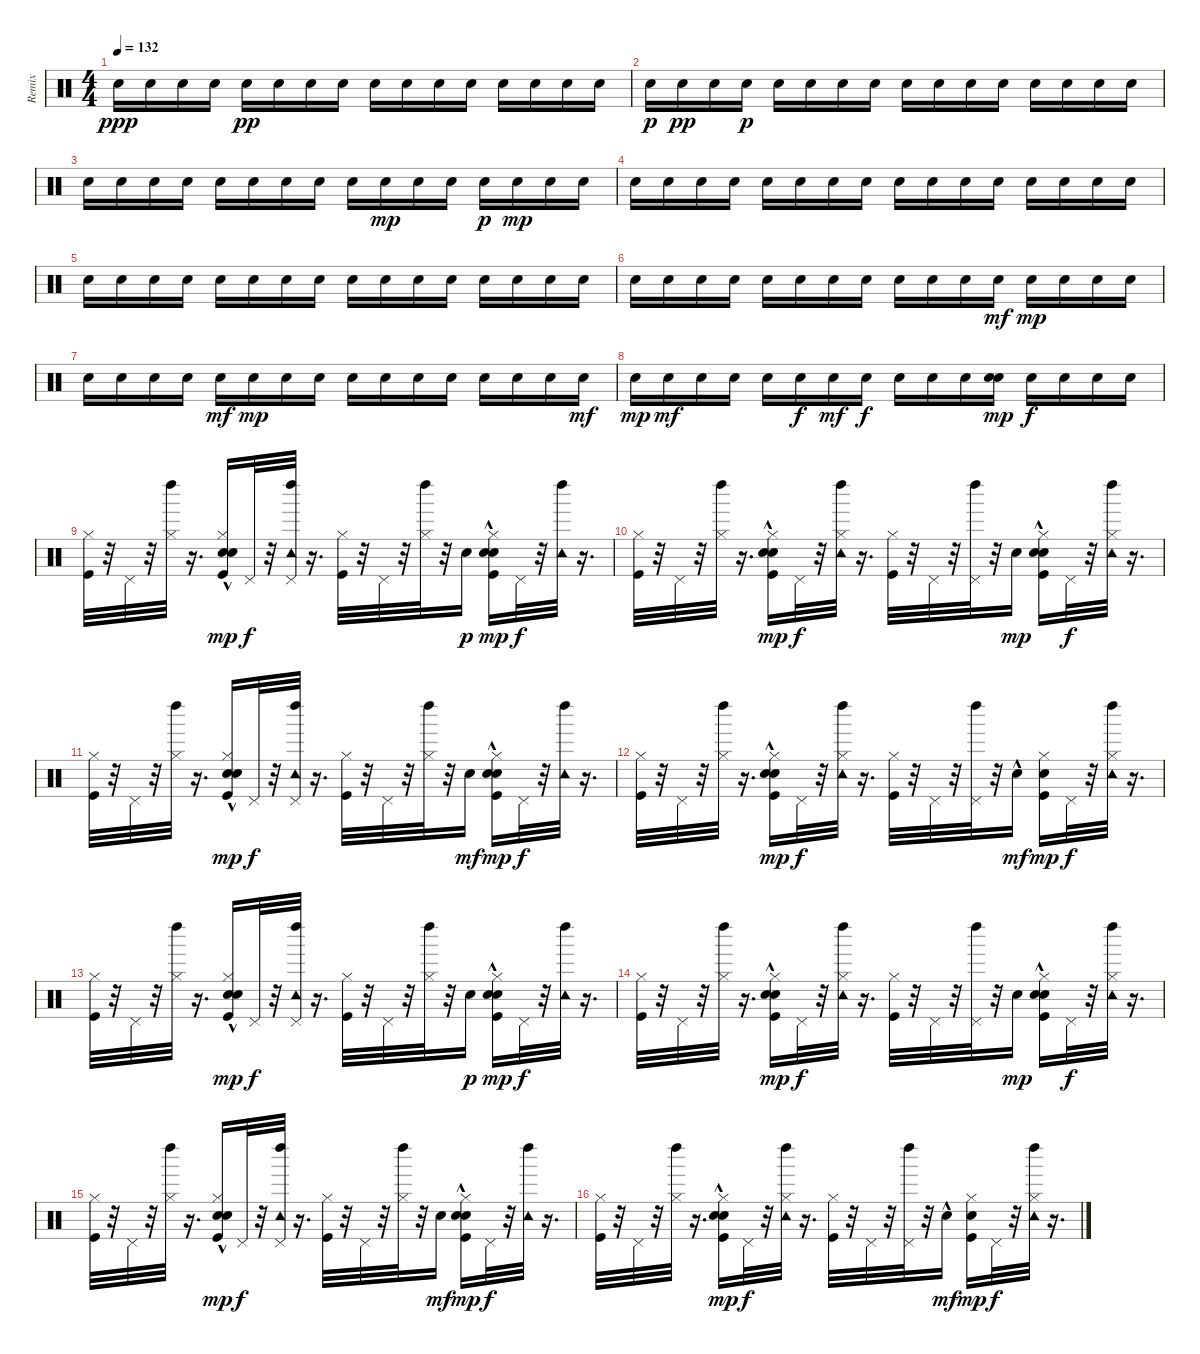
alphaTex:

\track ("Remix" "Remix") {instrument percussion}
\staff {score}
\articulation defaults
\ts (4 4)
\tempo 132
\clef neutral
\ks c "Snare (hit) 2".16{dy ppp} "Snare (hit) 2".16 "Snare (hit) 2".16 "Snare (hit) 2".16 "Snare (hit) 2".16{dy pp} "Snare (hit) 2".16 "Snare (hit) 2".16 "Snare (hit) 2".16 "Snare (hit) 2".16 "Snare (hit) 2".16 "Snare (hit) 2".16 "Snare (hit) 2".16 "Snare (hit) 2".16 "Snare (hit) 2".16 "Snare (hit) 2".16 "Snare (hit) 2".16
|
"Snare (hit) 2".16{dy p} "Snare (hit) 2".16{dy pp} "Snare (hit) 2".16 "Snare (hit) 2".16{dy p} "Snare (hit) 2".16 "Snare (hit) 2".16 "Snare (hit) 2".16 "Snare (hit) 2".16 "Snare (hit) 2".16 "Snare (hit) 2".16 "Snare (hit) 2".16 "Snare (hit) 2".16 "Snare (hit) 2".16 "Snare (hit) 2".16 "Snare (hit) 2".16 "Snare (hit) 2".16 |
"Snare (hit) 2".16 "Snare (hit) 2".16 "Snare (hit) 2".16 "Snare (hit) 2".16 "Snare (hit) 2".16 "Snare (hit) 2".16 "Snare (hit) 2".16 "Snare (hit) 2".16 "Snare (hit) 2".16 "Snare (hit) 2".16{dy mp} "Snare (hit) 2".16 "Snare (hit) 2".16 "Snare (hit) 2".16{dy p} "Snare (hit) 2".16{dy mp} "Snare (hit) 2".16 "Snare (hit) 2".16 |
"Snare (hit) 2".16 "Snare (hit) 2".16 "Snare (hit) 2".16 "Snare (hit) 2".16 "Snare (hit) 2".16 "Snare (hit) 2".16 "Snare (hit) 2".16 "Snare (hit) 2".16 "Snare (hit) 2".16 "Snare (hit) 2".16 "Snare (hit) 2".16 "Snare (hit) 2".16 "Snare (hit) 2".16 "Snare (hit) 2".16 "Snare (hit) 2".16 "Snare (hit) 2".16 |
"Snare (hit) 2".16 "Snare (hit) 2".16 "Snare (hit) 2".16 "Snare (hit) 2".16 "Snare (hit) 2".16 "Snare (hit) 2".16 "Snare (hit) 2".16 "Snare (hit) 2".16 "Snare (hit) 2".16 "Snare (hit) 2".16 "Snare (hit) 2".16 "Snare (hit) 2".16 "Snare (hit) 2".16 "Snare (hit) 2".16 "Snare (hit) 2".16 "Snare (hit) 2".16 |
"Snare (hit) 2".16 "Snare (hit) 2".16 "Snare (hit) 2".16 "Snare (hit) 2".16 "Snare (hit) 2".16 "Snare (hit) 2".16 "Snare (hit) 2".16 "Snare (hit) 2".16 "Snare (hit) 2".16 "Snare (hit) 2".16 "Snare (hit) 2".16 "Snare (hit) 2".16{dy mf} "Snare (hit) 2".16{dy mp} "Snare (hit) 2".16 "Snare (hit) 2".16 "Snare (hit) 2".16 |
"Snare (hit) 2".16 "Snare (hit) 2".16 "Snare (hit) 2".16 "Snare (hit) 2".16 "Snare (hit) 2".16{dy mf} "Snare (hit) 2".16{dy mp} "Snare (hit) 2".16 "Snare (hit) 2".16 "Snare (hit) 2".16 "Snare (hit) 2".16 "Snare (hit) 2".16 "Snare (hit) 2".16 "Snare (hit) 2".16 "Snare (hit) 2".16 "Snare (hit) 2".16 "Snare (hit) 2".16{dy mf} |
"Snare (hit) 2".16{dy mp} "Snare (hit) 2".16{dy mf} "Snare (hit) 2".16 "Snare (hit) 2".16 "Snare (hit) 2".16 "Snare (hit) 2".16{dy f} "Snare (hit) 2".16{dy mf} "Snare (hit) 2".16{dy f} "Snare (hit) 2".16 "Snare (hit) 2".16 "Snare (hit) 2".16 ("Snare (hit) 2" "Electric Snare (hit)").16{dy mp} "Snare (hit) 2".16{dy f} "Snare (hit) 2".16 "Snare (hit) 2".16 "Snare (hit) 2".16 |
("Hi-Hat (closed)" "Kick (hit)").32{volume 11} r.32 "Pedal Hi-Hat (hit)".32 r.32 ("Left Maraca (hit)" "Hi-Hat (closed)").32 r.16{d} ("Kick (hit)" "Hi-Hat (closed)" "Hand Clap (hit)" "Electric Snare (hit)"{hac}).16{dy mp} "Pedal Hi-Hat (hit)".32{dy f} r.32 ("Tambourine (hit)" "Left Maraca (hit)" "Pedal Hi-Hat (hit)").32 r.16{d} ("Hi-Hat (closed)" "Kick (hit)").32 r.32 "Pedal Hi-Hat (hit)".32 r.32 ("Hi-Hat (closed)" "Left Maraca (hit)").32 r.32 "Hand Clap (hit)".16{dy p} ("Kick (hit)" "Hi-Hat (closed)" "Hand Clap (hit)" "Electric Snare (hit)"{hac}).16{dy mp} "Pedal Hi-Hat (hit)".32{dy f} r.32 ("Tambourine (hit)" "Left Maraca (hit)").32 r.16{d} |
("Hi-Hat (closed)" "Kick (hit)").32 r.32 "Pedal Hi-Hat (hit)".32 r.32 ("Left Maraca (hit)" "Hi-Hat (closed)").32 r.16{d} ("Hi-Hat (closed)" "Kick (hit)" "Hand Clap (hit)" "Electric Snare (hit)"{hac}).16{dy mp} "Pedal Hi-Hat (hit)".32{dy f} r.32 ("Hi-Hat (closed)" "Tambourine (hit)" "Left Maraca (hit)").32 r.16{d} ("Hi-Hat (closed)" "Kick (hit)").32 r.32 "Pedal Hi-Hat (hit)".32 r.32 ("Left Maraca (hit)" "Pedal Hi-Hat (hit)").32 r.32 "Hand Clap (hit)".16{dy mp} ("Kick (hit)" "Hi-Hat (closed)" "Hand Clap (hit)" "Electric Snare (hit)"{hac}).16 "Pedal Hi-Hat (hit)".32{dy f} r.32 ("Hi-Hat (closed)" "Left Maraca (hit)" "Tambourine (hit)").32 r.16{d} |
("Hi-Hat (closed)" "Kick (hit)").32{volume 11} r.32 "Pedal Hi-Hat (hit)".32 r.32 ("Left Maraca (hit)" "Hi-Hat (closed)").32 r.16{d} ("Hand Clap (hit)" "Kick (hit)" "Hi-Hat (closed)" "Electric Snare (hit)"{hac}).16{dy mp} "Pedal Hi-Hat (hit)".32{dy f} r.32 ("Tambourine (hit)" "Left Maraca (hit)" "Pedal Hi-Hat (hit)").32 r.16{d} ("Hi-Hat (closed)" "Kick (hit)").32 r.32 "Pedal Hi-Hat (hit)".32 r.32 ("Hi-Hat (closed)" "Left Maraca (hit)").32 r.32 "Hand Clap (hit)".16{dy mf} ("Hand Clap (hit)" "Kick (hit)" "Hi-Hat (closed)" "Electric Snare (hit)"{hac}).16{dy mp} "Pedal Hi-Hat (hit)".32{dy f} r.32 ("Tambourine (hit)" "Left Maraca (hit)").32 r.16{d} |
("Hi-Hat (closed)" "Kick (hit)").32 r.32 "Pedal Hi-Hat (hit)".32 r.32 ("Left Maraca (hit)" "Hi-Hat (closed)").32 r.16{d} ("Hand Clap (hit)"{hac} "Hi-Hat (closed)" "Kick (hit)" "Electric Snare (hit)"{hac}).16{dy mp} "Pedal Hi-Hat (hit)".32{dy f} r.32 ("Hi-Hat (closed)" "Tambourine (hit)" "Left Maraca (hit)").32 r.16{d} ("Hi-Hat (closed)" "Kick (hit)").32 r.32 "Pedal Hi-Hat (hit)".32 r.32 ("Left Maraca (hit)" "Pedal Hi-Hat (hit)").32 r.32 "Hand Clap (hit)"{hac}.16{dy mf} ("Kick (hit)" "Hi-Hat (closed)" "Electric Snare (hit)").16{dy mp} "Pedal Hi-Hat (hit)".32{dy f} r.32 ("Hi-Hat (closed)" "Left Maraca (hit)" "Tambourine (hit)").32 r.16{d} |
("Hi-Hat (closed)" "Kick (hit)").32{volume 11} r.32 "Pedal Hi-Hat (hit)".32 r.32 ("Left Maraca (hit)" "Hi-Hat (closed)").32 r.16{d} ("Kick (hit)" "Hi-Hat (closed)" "Hand Clap (hit)" "Electric Snare (hit)"{hac}).16{dy mp} "Pedal Hi-Hat (hit)".32{dy f} r.32 ("Tambourine (hit)" "Left Maraca (hit)" "Pedal Hi-Hat (hit)").32 r.16{d} ("Hi-Hat (closed)" "Kick (hit)").32 r.32 "Pedal Hi-Hat (hit)".32 r.32 ("Hi-Hat (closed)" "Left Maraca (hit)").32 r.32 "Hand Clap (hit)".16{dy p} ("Kick (hit)" "Hi-Hat (closed)" "Hand Clap (hit)" "Electric Snare (hit)"{hac}).16{dy mp} "Pedal Hi-Hat (hit)".32{dy f} r.32 ("Tambourine (hit)" "Left Maraca (hit)").32 r.16{d} |
("Hi-Hat (closed)" "Kick (hit)").32 r.32 "Pedal Hi-Hat (hit)".32 r.32 ("Left Maraca (hit)" "Hi-Hat (closed)").32 r.16{d} ("Hi-Hat (closed)" "Kick (hit)" "Hand Clap (hit)" "Electric Snare (hit)"{hac}).16{dy mp} "Pedal Hi-Hat (hit)".32{dy f} r.32 ("Hi-Hat (closed)" "Tambourine (hit)" "Left Maraca (hit)").32 r.16{d} ("Hi-Hat (closed)" "Kick (hit)").32 r.32 "Pedal Hi-Hat (hit)".32 r.32 ("Left Maraca (hit)" "Pedal Hi-Hat (hit)").32 r.32 "Hand Clap (hit)".16{dy mp} ("Kick (hit)" "Hi-Hat (closed)" "Hand Clap (hit)" "Electric Snare (hit)"{hac}).16 "Pedal Hi-Hat (hit)".32{dy f} r.32 ("Hi-Hat (closed)" "Left Maraca (hit)" "Tambourine (hit)").32 r.16{d} |
("Hi-Hat (closed)" "Kick (hit)").32{volume 11} r.32 "Pedal Hi-Hat (hit)".32 r.32 ("Left Maraca (hit)" "Hi-Hat (closed)").32 r.16{d} ("Hand Clap (hit)" "Kick (hit)" "Hi-Hat (closed)" "Electric Snare (hit)"{hac}).16{dy mp} "Pedal Hi-Hat (hit)".32{dy f} r.32 ("Tambourine (hit)" "Left Maraca (hit)" "Pedal Hi-Hat (hit)").32 r.16{d} ("Hi-Hat (closed)" "Kick (hit)").32 r.32 "Pedal Hi-Hat (hit)".32 r.32 ("Hi-Hat (closed)" "Left Maraca (hit)").32 r.32 "Hand Clap (hit)".16{dy mf} ("Hand Clap (hit)" "Kick (hit)" "Hi-Hat (closed)" "Electric Snare (hit)"{hac}).16{dy mp} "Pedal Hi-Hat (hit)".32{dy f} r.32 ("Tambourine (hit)" "Left Maraca (hit)").32 r.16{d} |
("Hi-Hat (closed)" "Kick (hit)").32 r.32 "Pedal Hi-Hat (hit)".32 r.32 ("Left Maraca (hit)" "Hi-Hat (closed)").32 r.16{d} ("Hand Clap (hit)"{hac} "Hi-Hat (closed)" "Kick (hit)" "Electric Snare (hit)"{hac}).16{dy mp} "Pedal Hi-Hat (hit)".32{dy f} r.32 ("Hi-Hat (closed)" "Tambourine (hit)" "Left Maraca (hit)").32 r.16{d} ("Hi-Hat (closed)" "Kick (hit)").32 r.32 "Pedal Hi-Hat (hit)".32 r.32 ("Left Maraca (hit)" "Pedal Hi-Hat (hit)").32 r.32 "Hand Clap (hit)"{hac}.16{dy mf} ("Kick (hit)" "Hi-Hat (closed)" "Electric Snare (hit)").16{dy mp} "Pedal Hi-Hat (hit)".32{dy f} r.32 ("Hi-Hat (closed)" "Left Maraca (hit)" "Tambourine (hit)").32 r.16{d}
